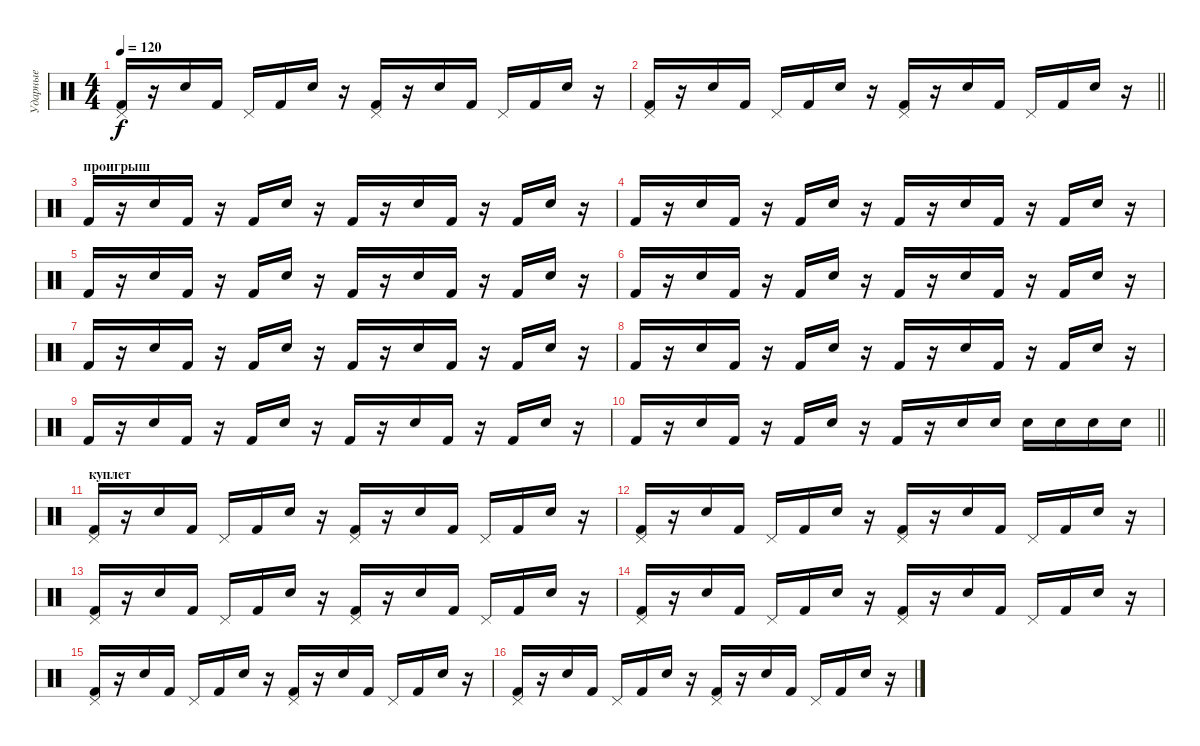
\track ("Ударные" "Ударные") {instrument percussion}
\staff {score}
\articulation defaults
\ts (4 4)
\tempo 120
\clef neutral
\ks c
("Pedal Hi-Hat (hit)" "Kick (hit) 2").16{dy f} r.16 "Electric Snare (hit)".16 "Kick (hit) 2".16 "Pedal Hi-Hat (hit)".16 "Kick (hit) 2".16 "Electric Snare (hit)".16 r.16 ("Pedal Hi-Hat (hit)" "Kick (hit) 2").16 r.16 "Electric Snare (hit)".16 "Kick (hit) 2".16 "Pedal Hi-Hat (hit)".16 "Kick (hit) 2".16 "Electric Snare (hit)".16 r.16 |
\barLineRight lightlight
("Pedal Hi-Hat (hit)" "Kick (hit) 2").16 r.16 "Electric Snare (hit)".16 "Kick (hit) 2".16 "Pedal Hi-Hat (hit)".16 "Kick (hit) 2".16 "Electric Snare (hit)".16 r.16 ("Pedal Hi-Hat (hit)" "Kick (hit) 2").16 r.16 "Electric Snare (hit)".16 "Kick (hit) 2".16 "Pedal Hi-Hat (hit)".16 "Kick (hit) 2".16 "Electric Snare (hit)".16 r.16 |
\section ("" "проигрыш")
"Kick (hit) 2".16 r.16 "Electric Snare (hit)".16 "Kick (hit) 2".16 r.16 "Kick (hit) 2".16 "Electric Snare (hit)".16 r.16 "Kick (hit) 2".16 r.16 "Electric Snare (hit)".16 "Kick (hit) 2".16 r.16 "Kick (hit) 2".16 "Electric Snare (hit)".16 r.16 |
"Kick (hit) 2".16 r.16 "Electric Snare (hit)".16 "Kick (hit) 2".16 r.16 "Kick (hit) 2".16 "Electric Snare (hit)".16 r.16 "Kick (hit) 2".16 r.16 "Electric Snare (hit)".16 "Kick (hit) 2".16 r.16 "Kick (hit) 2".16 "Electric Snare (hit)".16 r.16 |
"Kick (hit) 2".16 r.16 "Electric Snare (hit)".16 "Kick (hit) 2".16 r.16 "Kick (hit) 2".16 "Electric Snare (hit)".16 r.16 "Kick (hit) 2".16 r.16 "Electric Snare (hit)".16 "Kick (hit) 2".16 r.16 "Kick (hit) 2".16 "Electric Snare (hit)".16 r.16 |
"Kick (hit) 2".16 r.16 "Electric Snare (hit)".16 "Kick (hit) 2".16 r.16 "Kick (hit) 2".16 "Electric Snare (hit)".16 r.16 "Kick (hit) 2".16 r.16 "Electric Snare (hit)".16 "Kick (hit) 2".16 r.16 "Kick (hit) 2".16 "Electric Snare (hit)".16 r.16 |
"Kick (hit) 2".16 r.16 "Electric Snare (hit)".16 "Kick (hit) 2".16 r.16 "Kick (hit) 2".16 "Electric Snare (hit)".16 r.16 "Kick (hit) 2".16 r.16 "Electric Snare (hit)".16 "Kick (hit) 2".16 r.16 "Kick (hit) 2".16 "Electric Snare (hit)".16 r.16 |
"Kick (hit) 2".16 r.16 "Electric Snare (hit)".16 "Kick (hit) 2".16 r.16 "Kick (hit) 2".16 "Electric Snare (hit)".16 r.16 "Kick (hit) 2".16 r.16 "Electric Snare (hit)".16 "Kick (hit) 2".16 r.16 "Kick (hit) 2".16 "Electric Snare (hit)".16 r.16 |
"Kick (hit) 2".16 r.16 "Electric Snare (hit)".16 "Kick (hit) 2".16 r.16 "Kick (hit) 2".16 "Electric Snare (hit)".16 r.16 "Kick (hit) 2".16 r.16 "Electric Snare (hit)".16 "Kick (hit) 2".16 r.16 "Kick (hit) 2".16 "Electric Snare (hit)".16 r.16 |
\barLineRight lightlight "Kick (hit) 2".16
r.16 "Electric Snare (hit)".16 "Kick (hit) 2".16 r.16 "Kick (hit) 2".16 "Electric Snare (hit)".16 r.16 "Kick (hit) 2".16 r.16 "Electric Snare (hit)".16 "Electric Snare (hit)".16 "Electric Snare (hit)".16 "Electric Snare (hit)".16 "Electric Snare (hit)".16 "Electric Snare (hit)".16 |
\section ("" "куплет")
("Pedal Hi-Hat (hit)" "Kick (hit) 2").16 r.16 "Electric Snare (hit)".16 "Kick (hit) 2".16 "Pedal Hi-Hat (hit)".16 "Kick (hit) 2".16 "Electric Snare (hit)".16 r.16 ("Pedal Hi-Hat (hit)" "Kick (hit) 2").16 r.16 "Electric Snare (hit)".16 "Kick (hit) 2".16 "Pedal Hi-Hat (hit)".16 "Kick (hit) 2".16 "Electric Snare (hit)".16 r.16 |
("Pedal Hi-Hat (hit)" "Kick (hit) 2").16 r.16 "Electric Snare (hit)".16 "Kick (hit) 2".16 "Pedal Hi-Hat (hit)".16 "Kick (hit) 2".16 "Electric Snare (hit)".16 r.16 ("Pedal Hi-Hat (hit)" "Kick (hit) 2").16 r.16 "Electric Snare (hit)".16 "Kick (hit) 2".16 "Pedal Hi-Hat (hit)".16 "Kick (hit) 2".16 "Electric Snare (hit)".16 r.16 |
("Pedal Hi-Hat (hit)" "Kick (hit) 2").16 r.16 "Electric Snare (hit)".16 "Kick (hit) 2".16 "Pedal Hi-Hat (hit)".16 "Kick (hit) 2".16 "Electric Snare (hit)".16 r.16 ("Pedal Hi-Hat (hit)" "Kick (hit) 2").16 r.16 "Electric Snare (hit)".16 "Kick (hit) 2".16 "Pedal Hi-Hat (hit)".16 "Kick (hit) 2".16 "Electric Snare (hit)".16 r.16 |
("Pedal Hi-Hat (hit)" "Kick (hit) 2").16 r.16 "Electric Snare (hit)".16 "Kick (hit) 2".16 "Pedal Hi-Hat (hit)".16 "Kick (hit) 2".16 "Electric Snare (hit)".16 r.16 ("Pedal Hi-Hat (hit)" "Kick (hit) 2").16 r.16 "Electric Snare (hit)".16 "Kick (hit) 2".16 "Pedal Hi-Hat (hit)".16 "Kick (hit) 2".16 "Electric Snare (hit)".16 r.16 |
("Pedal Hi-Hat (hit)" "Kick (hit) 2").16 r.16 "Electric Snare (hit)".16 "Kick (hit) 2".16 "Pedal Hi-Hat (hit)".16 "Kick (hit) 2".16 "Electric Snare (hit)".16 r.16 ("Pedal Hi-Hat (hit)" "Kick (hit) 2").16 r.16 "Electric Snare (hit)".16 "Kick (hit) 2".16 "Pedal Hi-Hat (hit)".16 "Kick (hit) 2".16 "Electric Snare (hit)".16 r.16 |
("Pedal Hi-Hat (hit)" "Kick (hit) 2").16 r.16 "Electric Snare (hit)".16 "Kick (hit) 2".16 "Pedal Hi-Hat (hit)".16 "Kick (hit) 2".16 "Electric Snare (hit)".16 r.16 ("Pedal Hi-Hat (hit)" "Kick (hit) 2").16 r.16 "Electric Snare (hit)".16 "Kick (hit) 2".16 "Pedal Hi-Hat (hit)".16 "Kick (hit) 2".16 "Electric Snare (hit)".16 r.16
